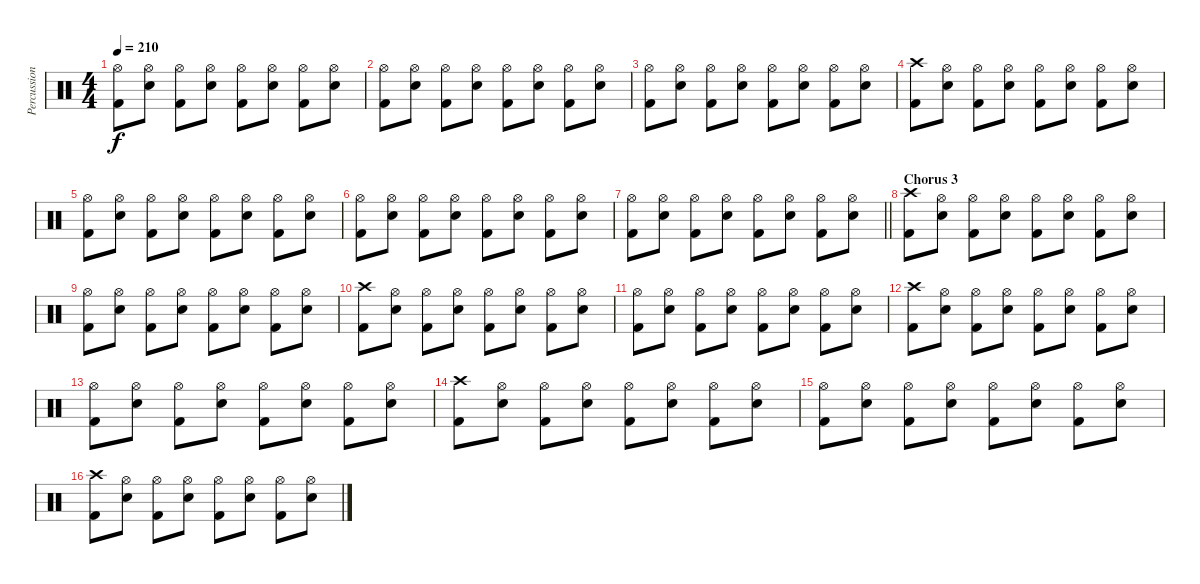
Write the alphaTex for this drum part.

\track ("Percussion" "Percussion") {instrument percussion}
\staff {score}
\articulation defaults
\ts (4 4)
\tempo 210
\clef neutral
\ks c
("Hi-Hat (open)" "Kick (hit) 2").8{dy f} ("Hi-Hat (open)" "Electric Snare (hit)").8 ("Hi-Hat (open)" "Kick (hit) 2").8 ("Hi-Hat (open)" "Electric Snare (hit)").8 ("Hi-Hat (open)" "Kick (hit) 2").8 ("Hi-Hat (open)" "Electric Snare (hit)").8 ("Hi-Hat (open)" "Kick (hit) 2").8 ("Hi-Hat (open)" "Electric Snare (hit)").8 |
("Hi-Hat (open)" "Kick (hit) 2").8 ("Hi-Hat (open)" "Electric Snare (hit)").8 ("Hi-Hat (open)" "Kick (hit) 2").8 ("Hi-Hat (open)" "Electric Snare (hit)").8 ("Hi-Hat (open)" "Kick (hit) 2").8 ("Hi-Hat (open)" "Electric Snare (hit)").8 ("Hi-Hat (open)" "Kick (hit) 2").8 ("Hi-Hat (open)" "Electric Snare (hit)").8 |
("Hi-Hat (open)" "Kick (hit) 2").8 ("Hi-Hat (open)" "Electric Snare (hit)").8 ("Hi-Hat (open)" "Kick (hit) 2").8 ("Hi-Hat (open)" "Electric Snare (hit)").8 ("Hi-Hat (open)" "Kick (hit) 2").8 ("Hi-Hat (open)" "Electric Snare (hit)").8 ("Hi-Hat (open)" "Kick (hit) 2").8 ("Hi-Hat (open)" "Electric Snare (hit)").8 |
("Crash high (hit)" "Kick (hit) 2").8 ("Hi-Hat (open)" "Electric Snare (hit)").8 ("Hi-Hat (open)" "Kick (hit) 2").8 ("Hi-Hat (open)" "Electric Snare (hit)").8 ("Hi-Hat (open)" "Kick (hit) 2").8 ("Hi-Hat (open)" "Electric Snare (hit)").8 ("Hi-Hat (open)" "Kick (hit) 2").8 ("Hi-Hat (open)" "Electric Snare (hit)").8 |
("Hi-Hat (open)" "Kick (hit) 2").8 ("Hi-Hat (open)" "Electric Snare (hit)").8 ("Hi-Hat (open)" "Kick (hit) 2").8 ("Hi-Hat (open)" "Electric Snare (hit)").8 ("Hi-Hat (open)" "Kick (hit) 2").8 ("Hi-Hat (open)" "Electric Snare (hit)").8 ("Hi-Hat (open)" "Kick (hit) 2").8 ("Hi-Hat (open)" "Electric Snare (hit)").8 |
("Hi-Hat (open)" "Kick (hit) 2").8 ("Hi-Hat (open)" "Electric Snare (hit)").8 ("Hi-Hat (open)" "Kick (hit) 2").8 ("Hi-Hat (open)" "Electric Snare (hit)").8 ("Hi-Hat (open)" "Kick (hit) 2").8 ("Hi-Hat (open)" "Electric Snare (hit)").8 ("Hi-Hat (open)" "Kick (hit) 2").8 ("Hi-Hat (open)" "Electric Snare (hit)").8 |
\barLineRight lightlight
("Hi-Hat (open)" "Kick (hit) 2").8 ("Hi-Hat (open)" "Electric Snare (hit)").8 ("Hi-Hat (open)" "Kick (hit) 2").8 ("Hi-Hat (open)" "Electric Snare (hit)").8 ("Hi-Hat (open)" "Kick (hit) 2").8 ("Hi-Hat (open)" "Electric Snare (hit)").8 ("Hi-Hat (open)" "Kick (hit) 2").8 ("Hi-Hat (open)" "Electric Snare (hit)").8 |
\section ("" "Chorus 3")
("Crash high (hit)" "Kick (hit) 2").8 ("Hi-Hat (open)" "Electric Snare (hit)").8 ("Hi-Hat (open)" "Kick (hit) 2").8 ("Hi-Hat (open)" "Electric Snare (hit)").8 ("Hi-Hat (open)" "Kick (hit) 2").8 ("Hi-Hat (open)" "Electric Snare (hit)").8 ("Hi-Hat (open)" "Kick (hit) 2").8 ("Hi-Hat (open)" "Electric Snare (hit)").8 |
("Hi-Hat (open)" "Kick (hit) 2").8 ("Hi-Hat (open)" "Electric Snare (hit)").8 ("Hi-Hat (open)" "Kick (hit) 2").8 ("Hi-Hat (open)" "Electric Snare (hit)").8 ("Hi-Hat (open)" "Kick (hit) 2").8 ("Hi-Hat (open)" "Electric Snare (hit)").8 ("Hi-Hat (open)" "Kick (hit) 2").8 ("Hi-Hat (open)" "Electric Snare (hit)").8 |
("Crash high (hit)" "Kick (hit) 2").8 ("Hi-Hat (open)" "Electric Snare (hit)").8 ("Hi-Hat (open)" "Kick (hit) 2").8 ("Hi-Hat (open)" "Electric Snare (hit)").8 ("Hi-Hat (open)" "Kick (hit) 2").8 ("Hi-Hat (open)" "Electric Snare (hit)").8 ("Hi-Hat (open)" "Kick (hit) 2").8 ("Hi-Hat (open)" "Electric Snare (hit)").8 |
("Hi-Hat (open)" "Kick (hit) 2").8 ("Hi-Hat (open)" "Electric Snare (hit)").8 ("Hi-Hat (open)" "Kick (hit) 2").8 ("Hi-Hat (open)" "Electric Snare (hit)").8 ("Hi-Hat (open)" "Kick (hit) 2").8 ("Hi-Hat (open)" "Electric Snare (hit)").8 ("Hi-Hat (open)" "Kick (hit) 2").8 ("Hi-Hat (open)" "Electric Snare (hit)").8 |
("Crash high (hit)" "Kick (hit) 2").8 ("Hi-Hat (open)" "Electric Snare (hit)").8 ("Hi-Hat (open)" "Kick (hit) 2").8 ("Hi-Hat (open)" "Electric Snare (hit)").8 ("Hi-Hat (open)" "Kick (hit) 2").8 ("Hi-Hat (open)" "Electric Snare (hit)").8 ("Hi-Hat (open)" "Kick (hit) 2").8 ("Hi-Hat (open)" "Electric Snare (hit)").8 |
("Hi-Hat (open)" "Kick (hit) 2").8 ("Hi-Hat (open)" "Electric Snare (hit)").8 ("Hi-Hat (open)" "Kick (hit) 2").8 ("Hi-Hat (open)" "Electric Snare (hit)").8 ("Hi-Hat (open)" "Kick (hit) 2").8 ("Hi-Hat (open)" "Electric Snare (hit)").8 ("Hi-Hat (open)" "Kick (hit) 2").8 ("Hi-Hat (open)" "Electric Snare (hit)").8 |
("Crash high (hit)" "Kick (hit) 2").8 ("Hi-Hat (open)" "Electric Snare (hit)").8 ("Hi-Hat (open)" "Kick (hit) 2").8 ("Hi-Hat (open)" "Electric Snare (hit)").8 ("Hi-Hat (open)" "Kick (hit) 2").8 ("Hi-Hat (open)" "Electric Snare (hit)").8 ("Hi-Hat (open)" "Kick (hit) 2").8 ("Hi-Hat (open)" "Electric Snare (hit)").8 |
("Hi-Hat (open)" "Kick (hit) 2").8 ("Hi-Hat (open)" "Electric Snare (hit)").8 ("Hi-Hat (open)" "Kick (hit) 2").8 ("Hi-Hat (open)" "Electric Snare (hit)").8 ("Hi-Hat (open)" "Kick (hit) 2").8 ("Hi-Hat (open)" "Electric Snare (hit)").8 ("Hi-Hat (open)" "Kick (hit) 2").8 ("Hi-Hat (open)" "Electric Snare (hit)").8 |
("Crash high (hit)" "Kick (hit) 2").8 ("Hi-Hat (open)" "Electric Snare (hit)").8 ("Hi-Hat (open)" "Kick (hit) 2").8 ("Hi-Hat (open)" "Electric Snare (hit)").8 ("Hi-Hat (open)" "Kick (hit) 2").8 ("Hi-Hat (open)" "Electric Snare (hit)").8 ("Hi-Hat (open)" "Kick (hit) 2").8 ("Hi-Hat (open)" "Electric Snare (hit)").8
